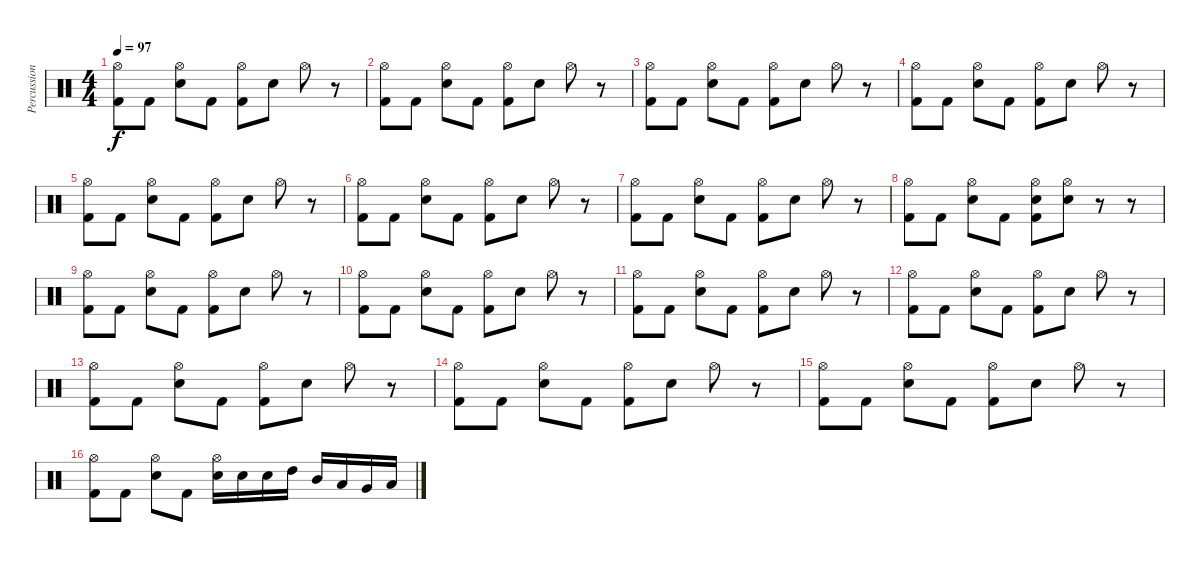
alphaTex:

\track ("Percussion" "Percussion") {instrument percussion}
\staff {score}
\articulation defaults
\ts (4 4)
\tempo 97
\clef neutral
\ks c
("Hi-Hat (open)" "Kick (hit) 2").8{dy f} "Kick (hit) 2".8 ("Hi-Hat (open)" "Electric Snare (hit)").8 "Kick (hit) 2".8 ("Hi-Hat (open)" "Kick (hit) 2").8 "Electric Snare (hit)".8 "Hi-Hat (open)".8 r.8 |
("Hi-Hat (open)" "Kick (hit) 2").8 "Kick (hit) 2".8 ("Hi-Hat (open)" "Electric Snare (hit)").8 "Kick (hit) 2".8 ("Hi-Hat (open)" "Kick (hit) 2").8 "Electric Snare (hit)".8 "Hi-Hat (open)".8 r.8 |
("Hi-Hat (open)" "Kick (hit) 2").8 "Kick (hit) 2".8 ("Hi-Hat (open)" "Electric Snare (hit)").8 "Kick (hit) 2".8 ("Hi-Hat (open)" "Kick (hit) 2").8 "Electric Snare (hit)".8 "Hi-Hat (open)".8 r.8 |
("Hi-Hat (open)" "Kick (hit) 2").8 "Kick (hit) 2".8 ("Hi-Hat (open)" "Electric Snare (hit)").8 "Kick (hit) 2".8 ("Hi-Hat (open)" "Kick (hit) 2").8 "Electric Snare (hit)".8 "Hi-Hat (open)".8 r.8 |
("Hi-Hat (open)" "Kick (hit) 2").8 "Kick (hit) 2".8 ("Hi-Hat (open)" "Electric Snare (hit)").8 "Kick (hit) 2".8 ("Hi-Hat (open)" "Kick (hit) 2").8 "Electric Snare (hit)".8 "Hi-Hat (open)".8 r.8 |
("Hi-Hat (open)" "Kick (hit) 2").8 "Kick (hit) 2".8 ("Hi-Hat (open)" "Electric Snare (hit)").8 "Kick (hit) 2".8 ("Hi-Hat (open)" "Kick (hit) 2").8 "Electric Snare (hit)".8 "Hi-Hat (open)".8 r.8 |
("Hi-Hat (open)" "Kick (hit) 2").8 "Kick (hit) 2".8 ("Hi-Hat (open)" "Electric Snare (hit)").8 "Kick (hit) 2".8 ("Hi-Hat (open)" "Kick (hit) 2").8 "Electric Snare (hit)".8 "Hi-Hat (open)".8 r.8 |
("Hi-Hat (open)" "Kick (hit) 2").8 "Kick (hit) 2".8 ("Hi-Hat (open)" "Electric Snare (hit)").8 "Kick (hit) 2".8 ("Hi-Hat (open)" "Electric Snare (hit)" "Kick (hit) 2").8 ("Hi-Hat (open)" "Electric Snare (hit)").8 r.8 r.8 |
("Hi-Hat (open)" "Kick (hit) 2").8 "Kick (hit) 2".8 ("Hi-Hat (open)" "Electric Snare (hit)").8 "Kick (hit) 2".8 ("Hi-Hat (open)" "Kick (hit) 2").8 "Electric Snare (hit)".8 "Hi-Hat (open)".8 r.8 |
("Hi-Hat (open)" "Kick (hit) 2").8 "Kick (hit) 2".8 ("Hi-Hat (open)" "Electric Snare (hit)").8 "Kick (hit) 2".8 ("Hi-Hat (open)" "Kick (hit) 2").8 "Electric Snare (hit)".8 "Hi-Hat (open)".8 r.8 |
("Hi-Hat (open)" "Kick (hit) 2").8 "Kick (hit) 2".8 ("Hi-Hat (open)" "Electric Snare (hit)").8 "Kick (hit) 2".8 ("Hi-Hat (open)" "Kick (hit) 2").8 "Electric Snare (hit)".8 "Hi-Hat (open)".8 r.8 |
("Hi-Hat (open)" "Kick (hit) 2").8 "Kick (hit) 2".8 ("Hi-Hat (open)" "Electric Snare (hit)").8 "Kick (hit) 2".8 ("Hi-Hat (open)" "Kick (hit) 2").8 "Electric Snare (hit)".8 "Hi-Hat (open)".8 r.8 |
("Hi-Hat (open)" "Kick (hit) 2").8 "Kick (hit) 2".8 ("Hi-Hat (open)" "Electric Snare (hit)").8 "Kick (hit) 2".8 ("Hi-Hat (open)" "Kick (hit) 2").8 "Electric Snare (hit)".8 "Hi-Hat (open)".8 r.8 |
("Hi-Hat (open)" "Kick (hit) 2").8 "Kick (hit) 2".8 ("Hi-Hat (open)" "Electric Snare (hit)").8 "Kick (hit) 2".8 ("Hi-Hat (open)" "Kick (hit) 2").8 "Electric Snare (hit)".8 "Hi-Hat (open)".8 r.8 |
("Hi-Hat (open)" "Kick (hit) 2").8 "Kick (hit) 2".8 ("Hi-Hat (open)" "Electric Snare (hit)").8 "Kick (hit) 2".8 ("Hi-Hat (open)" "Kick (hit) 2").8 "Electric Snare (hit)".8 "Hi-Hat (open)".8 r.8 |
("Hi-Hat (open)" "Kick (hit) 2").8 "Kick (hit) 2".8 ("Hi-Hat (open)" "Electric Snare (hit)").8 "Kick (hit) 2".8 ("Hi-Hat (open)" "Electric Snare (hit)").16 "Electric Snare (hit)".16 "Electric Snare (hit)".16 "High Tom (hit)".16 "Mid Tom (hit)".16 "Low Tom (hit)".16 "Very Low Tom (hit)".16 "Low Floor Tom (hit)".16
